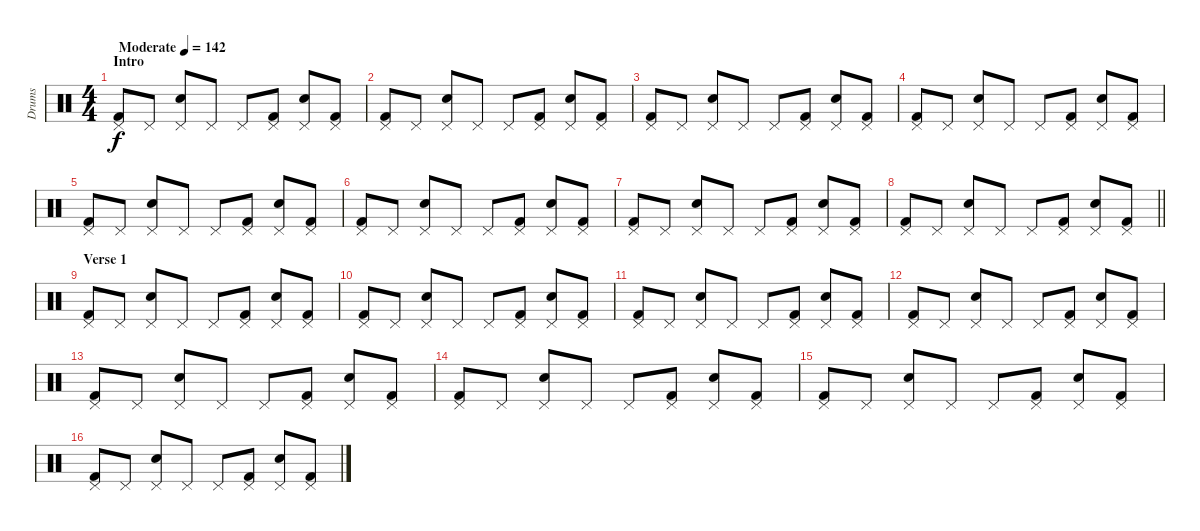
\track ("Drums" "Drums") {instrument percussion}
\staff {score}
\articulation defaults
\ts (4 4)
\section ("" "Intro")
\tempo (142 "Moderate")
\clef neutral
\ks c
("Pedal Hi-Hat (hit)" "Kick (hit) 2").8{dy f} "Pedal Hi-Hat (hit)".8 ("Pedal Hi-Hat (hit)" "Snare (hit) 2").8 "Pedal Hi-Hat (hit)".8 "Pedal Hi-Hat (hit)".8 ("Pedal Hi-Hat (hit)" "Kick (hit) 2").8 ("Pedal Hi-Hat (hit)" "Snare (hit) 2").8 ("Pedal Hi-Hat (hit)" "Kick (hit) 2").8 |
("Pedal Hi-Hat (hit)" "Kick (hit) 2").8 "Pedal Hi-Hat (hit)".8 ("Pedal Hi-Hat (hit)" "Snare (hit) 2").8 "Pedal Hi-Hat (hit)".8 "Pedal Hi-Hat (hit)".8 ("Pedal Hi-Hat (hit)" "Kick (hit) 2").8 ("Pedal Hi-Hat (hit)" "Snare (hit) 2").8 ("Pedal Hi-Hat (hit)" "Kick (hit) 2").8 |
("Pedal Hi-Hat (hit)" "Kick (hit) 2").8 "Pedal Hi-Hat (hit)".8 ("Pedal Hi-Hat (hit)" "Snare (hit) 2").8 "Pedal Hi-Hat (hit)".8 "Pedal Hi-Hat (hit)".8 ("Pedal Hi-Hat (hit)" "Kick (hit) 2").8 ("Pedal Hi-Hat (hit)" "Snare (hit) 2").8 ("Pedal Hi-Hat (hit)" "Kick (hit) 2").8 |
("Pedal Hi-Hat (hit)" "Kick (hit) 2").8 "Pedal Hi-Hat (hit)".8 ("Pedal Hi-Hat (hit)" "Snare (hit) 2").8 "Pedal Hi-Hat (hit)".8 "Pedal Hi-Hat (hit)".8 ("Pedal Hi-Hat (hit)" "Kick (hit) 2").8 ("Pedal Hi-Hat (hit)" "Snare (hit) 2").8 ("Pedal Hi-Hat (hit)" "Kick (hit) 2").8 |
("Pedal Hi-Hat (hit)" "Kick (hit) 2").8 "Pedal Hi-Hat (hit)".8 ("Pedal Hi-Hat (hit)" "Snare (hit) 2").8 "Pedal Hi-Hat (hit)".8 "Pedal Hi-Hat (hit)".8 ("Pedal Hi-Hat (hit)" "Kick (hit) 2").8 ("Pedal Hi-Hat (hit)" "Snare (hit) 2").8 ("Pedal Hi-Hat (hit)" "Kick (hit) 2").8 |
("Pedal Hi-Hat (hit)" "Kick (hit) 2").8 "Pedal Hi-Hat (hit)".8 ("Pedal Hi-Hat (hit)" "Snare (hit) 2").8 "Pedal Hi-Hat (hit)".8 "Pedal Hi-Hat (hit)".8 ("Pedal Hi-Hat (hit)" "Kick (hit) 2").8 ("Pedal Hi-Hat (hit)" "Snare (hit) 2").8 ("Pedal Hi-Hat (hit)" "Kick (hit) 2").8 |
("Pedal Hi-Hat (hit)" "Kick (hit) 2").8 "Pedal Hi-Hat (hit)".8 ("Pedal Hi-Hat (hit)" "Snare (hit) 2").8 "Pedal Hi-Hat (hit)".8 "Pedal Hi-Hat (hit)".8 ("Pedal Hi-Hat (hit)" "Kick (hit) 2").8 ("Pedal Hi-Hat (hit)" "Snare (hit) 2").8 ("Pedal Hi-Hat (hit)" "Kick (hit) 2").8 |
\barLineRight lightlight
("Pedal Hi-Hat (hit)" "Kick (hit) 2").8 "Pedal Hi-Hat (hit)".8 ("Pedal Hi-Hat (hit)" "Snare (hit) 2").8 "Pedal Hi-Hat (hit)".8 "Pedal Hi-Hat (hit)".8 ("Pedal Hi-Hat (hit)" "Kick (hit) 2").8 ("Pedal Hi-Hat (hit)" "Snare (hit) 2").8 ("Pedal Hi-Hat (hit)" "Kick (hit) 2").8 |
\section ("" "Verse 1")
("Pedal Hi-Hat (hit)" "Kick (hit) 2").8 "Pedal Hi-Hat (hit)".8 ("Pedal Hi-Hat (hit)" "Snare (hit) 2").8 "Pedal Hi-Hat (hit)".8 "Pedal Hi-Hat (hit)".8 ("Pedal Hi-Hat (hit)" "Kick (hit) 2").8 ("Pedal Hi-Hat (hit)" "Snare (hit) 2").8 ("Pedal Hi-Hat (hit)" "Kick (hit) 2").8 |
("Pedal Hi-Hat (hit)" "Kick (hit) 2").8 "Pedal Hi-Hat (hit)".8 ("Pedal Hi-Hat (hit)" "Snare (hit) 2").8 "Pedal Hi-Hat (hit)".8 "Pedal Hi-Hat (hit)".8 ("Pedal Hi-Hat (hit)" "Kick (hit) 2").8 ("Pedal Hi-Hat (hit)" "Snare (hit) 2").8 ("Pedal Hi-Hat (hit)" "Kick (hit) 2").8 |
("Pedal Hi-Hat (hit)" "Kick (hit) 2").8 "Pedal Hi-Hat (hit)".8 ("Pedal Hi-Hat (hit)" "Snare (hit) 2").8 "Pedal Hi-Hat (hit)".8 "Pedal Hi-Hat (hit)".8 ("Pedal Hi-Hat (hit)" "Kick (hit) 2").8 ("Pedal Hi-Hat (hit)" "Snare (hit) 2").8 ("Pedal Hi-Hat (hit)" "Kick (hit) 2").8 |
("Pedal Hi-Hat (hit)" "Kick (hit) 2").8 "Pedal Hi-Hat (hit)".8 ("Pedal Hi-Hat (hit)" "Snare (hit) 2").8 "Pedal Hi-Hat (hit)".8 "Pedal Hi-Hat (hit)".8 ("Pedal Hi-Hat (hit)" "Kick (hit) 2").8 ("Pedal Hi-Hat (hit)" "Snare (hit) 2").8 ("Pedal Hi-Hat (hit)" "Kick (hit) 2").8 |
("Pedal Hi-Hat (hit)" "Kick (hit) 2").8 "Pedal Hi-Hat (hit)".8 ("Pedal Hi-Hat (hit)" "Snare (hit) 2").8 "Pedal Hi-Hat (hit)".8 "Pedal Hi-Hat (hit)".8 ("Pedal Hi-Hat (hit)" "Kick (hit) 2").8 ("Pedal Hi-Hat (hit)" "Snare (hit) 2").8 ("Pedal Hi-Hat (hit)" "Kick (hit) 2").8 |
("Pedal Hi-Hat (hit)" "Kick (hit) 2").8 "Pedal Hi-Hat (hit)".8 ("Pedal Hi-Hat (hit)" "Snare (hit) 2").8 "Pedal Hi-Hat (hit)".8 "Pedal Hi-Hat (hit)".8 ("Pedal Hi-Hat (hit)" "Kick (hit) 2").8 ("Pedal Hi-Hat (hit)" "Snare (hit) 2").8 ("Pedal Hi-Hat (hit)" "Kick (hit) 2").8 |
("Pedal Hi-Hat (hit)" "Kick (hit) 2").8 "Pedal Hi-Hat (hit)".8 ("Pedal Hi-Hat (hit)" "Snare (hit) 2").8 "Pedal Hi-Hat (hit)".8 "Pedal Hi-Hat (hit)".8 ("Pedal Hi-Hat (hit)" "Kick (hit) 2").8 ("Pedal Hi-Hat (hit)" "Snare (hit) 2").8 ("Pedal Hi-Hat (hit)" "Kick (hit) 2").8 |
("Pedal Hi-Hat (hit)" "Kick (hit) 2").8 "Pedal Hi-Hat (hit)".8 ("Pedal Hi-Hat (hit)" "Snare (hit) 2").8 "Pedal Hi-Hat (hit)".8 "Pedal Hi-Hat (hit)".8 ("Pedal Hi-Hat (hit)" "Kick (hit) 2").8 ("Pedal Hi-Hat (hit)" "Snare (hit) 2").8 ("Pedal Hi-Hat (hit)" "Kick (hit) 2").8
